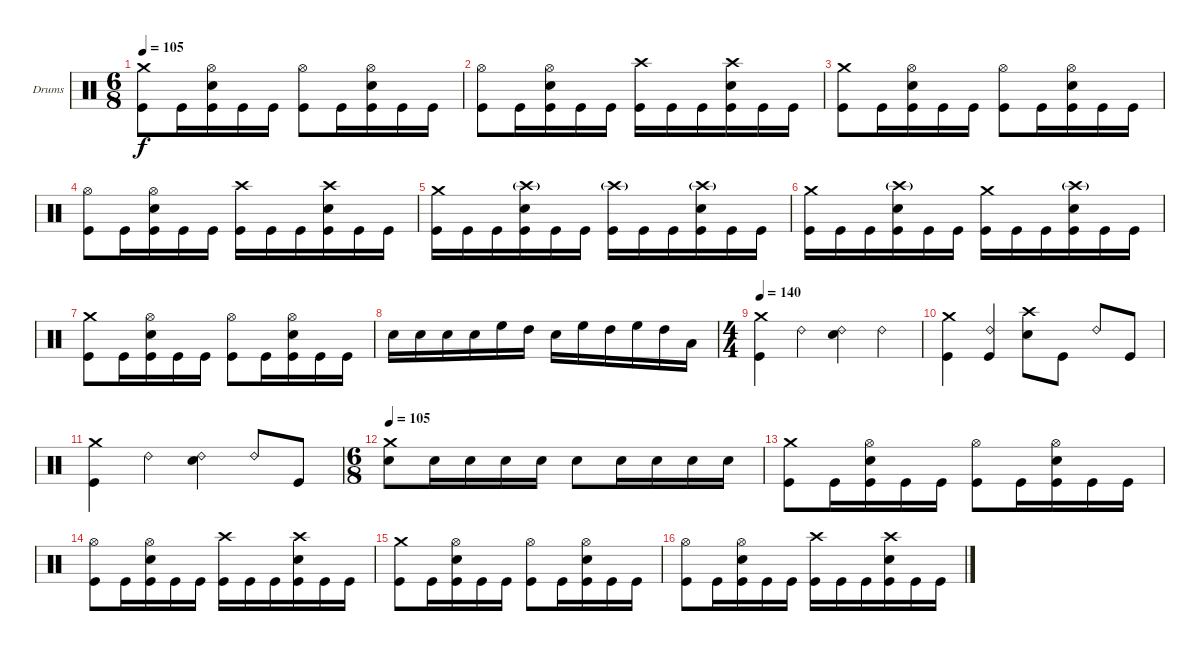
\defaultSystemsLayout 4
\bracketExtendMode groupsimilarinstruments
\firstSystemTrackNameOrientation horizontal
\otherSystemsTrackNameOrientation horizontal
\track ("Stefan Schwarzmann" "Drums") {instrument percussion}
\staff {score}
\articulation defaults
\ts (6 8)
\tempo 105
\clef neutral
\ks c
("Crash medium (hit)" "Kick (hit)").8{dy f} "Kick (hit)".16 ("Hi-Hat (open)" "Snare (hit) 2" "Kick (hit)").16 "Kick (hit)".16 "Kick (hit)".16 ("Hi-Hat (open)" "Kick (hit)").8 "Kick (hit)".16 ("Hi-Hat (open)" "Snare (hit) 2" "Kick (hit)").16 "Kick (hit)".16 "Kick (hit)".16 |
("Hi-Hat (open)" "Kick (hit)").8 "Kick (hit)".16 ("Hi-Hat (open)" "Snare (hit) 2" "Kick (hit)").16 "Kick (hit)".16 "Kick (hit)".16 ("Crash high (hit)" "Kick (hit)").16 "Kick (hit)".16 "Kick (hit)".16 ("Crash high (hit)" "Snare (hit) 2" "Kick (hit)").16 "Kick (hit)".16 "Kick (hit)".16 |
("Crash medium (hit)" "Kick (hit)").8 "Kick (hit)".16 ("Hi-Hat (open)" "Snare (hit) 2" "Kick (hit)").16 "Kick (hit)".16 "Kick (hit)".16 ("Hi-Hat (open)" "Kick (hit)").8 "Kick (hit)".16 ("Hi-Hat (open)" "Snare (hit) 2" "Kick (hit)").16 "Kick (hit)".16 "Kick (hit)".16 |
("Hi-Hat (open)" "Kick (hit)").8 "Kick (hit)".16 ("Hi-Hat (open)" "Snare (hit) 2" "Kick (hit)").16 "Kick (hit)".16 "Kick (hit)".16 ("Crash high (hit)" "Kick (hit)").16 "Kick (hit)".16 "Kick (hit)".16 ("Crash high (hit)" "Snare (hit) 2" "Kick (hit)").16 "Kick (hit)".16 "Kick (hit)".16 |
("Crash medium (hit)" "Kick (hit)").16 "Kick (hit)".16 "Kick (hit)".16 ("Crash high (hit)"{g} "Snare (hit) 2" "Kick (hit)").16 "Kick (hit)".16 "Kick (hit)".16 ("Crash high (hit)"{g} "Kick (hit)").16 "Kick (hit)".16 "Kick (hit)".16 ("Crash high (hit)"{g} "Snare (hit) 2" "Kick (hit)").16 "Kick (hit)".16 "Kick (hit)".16 |
("Crash medium (hit)" "Kick (hit)").16 "Kick (hit)".16 "Kick (hit)".16 ("Crash high (hit)"{g} "Snare (hit) 2" "Kick (hit)").16 "Kick (hit)".16 "Kick (hit)".16 ("Crash medium (hit)" "Kick (hit)").16 "Kick (hit)".16 "Kick (hit)".16 ("Crash high (hit)"{g} "Snare (hit) 2" "Kick (hit)").16 "Kick (hit)".16 "Kick (hit)".16 |
("Crash medium (hit)" "Kick (hit)").8 "Kick (hit)".16 ("Hi-Hat (open)" "Snare (hit) 2" "Kick (hit)").16 "Kick (hit)".16 "Kick (hit)".16 ("Hi-Hat (open)" "Kick (hit)").8 "Kick (hit)".16 ("Hi-Hat (open)" "Snare (hit) 2" "Kick (hit)").16 "Kick (hit)".16 "Kick (hit)".16 |
"Snare (hit) 2".16 "Snare (hit) 2".16 "Snare (hit) 2".16 "Snare (hit) 2".16 "High Floor Tom (hit)".16 "High Tom (hit)".16 "Snare (hit) 2".16 "High Floor Tom (hit)".16 "High Tom (hit)".16 "High Floor Tom (hit)".16 "High Tom (hit)".16 "Low Tom (hit)".16 |
\ts (4 4)
\tempo 140
("Crash medium (hit)" "Kick (hit)").4 "Ride (bell) 2".4 ("Ride (bell) 2" "Snare (hit) 2").4 "Ride (bell) 2".4 |
("Crash medium (hit)" "Kick (hit)").4 ("Ride (bell) 2" "Kick (hit)").4 ("Crash high (hit)" "Snare (hit) 2").8 "Kick (hit)".8 "Ride (bell) 2".8 "Kick (hit)".8 |
("Crash medium (hit)" "Kick (hit)").4 "Ride (bell) 2".4 ("Ride (bell) 2" "Snare (hit) 2").4 "Ride (bell) 2".8 "Kick (hit)".8 |
\ts (6 8)
\tempo 105
("Crash medium (hit)" "Snare (hit) 2").8 "Snare (hit) 2".16 "Snare (hit) 2".16 "Snare (hit) 2".16 "Snare (hit) 2".16 "Snare (hit) 2".8 "Snare (hit) 2".16 "Snare (hit) 2".16 "Snare (hit) 2".16 "Snare (hit) 2".16 |
("Crash medium (hit)" "Kick (hit)").8 "Kick (hit)".16 ("Hi-Hat (open)" "Snare (hit) 2" "Kick (hit)").16 "Kick (hit)".16 "Kick (hit)".16 ("Hi-Hat (open)" "Kick (hit)").8 "Kick (hit)".16 ("Hi-Hat (open)" "Snare (hit) 2" "Kick (hit)").16 "Kick (hit)".16 "Kick (hit)".16 |
("Hi-Hat (open)" "Kick (hit)").8 "Kick (hit)".16 ("Hi-Hat (open)" "Snare (hit) 2" "Kick (hit)").16 "Kick (hit)".16 "Kick (hit)".16 ("Crash high (hit)" "Kick (hit)").16 "Kick (hit)".16 "Kick (hit)".16 ("Crash high (hit)" "Snare (hit) 2" "Kick (hit)").16 "Kick (hit)".16 "Kick (hit)".16 |
("Crash medium (hit)" "Kick (hit)").8 "Kick (hit)".16 ("Hi-Hat (open)" "Snare (hit) 2" "Kick (hit)").16 "Kick (hit)".16 "Kick (hit)".16 ("Hi-Hat (open)" "Kick (hit)").8 "Kick (hit)".16 ("Hi-Hat (open)" "Snare (hit) 2" "Kick (hit)").16 "Kick (hit)".16 "Kick (hit)".16 |
("Hi-Hat (open)" "Kick (hit)").8 "Kick (hit)".16 ("Hi-Hat (open)" "Snare (hit) 2" "Kick (hit)").16 "Kick (hit)".16 "Kick (hit)".16 ("Crash high (hit)" "Kick (hit)").16 "Kick (hit)".16 "Kick (hit)".16 ("Crash high (hit)" "Snare (hit) 2" "Kick (hit)").16 "Kick (hit)".16 "Kick (hit)".16
